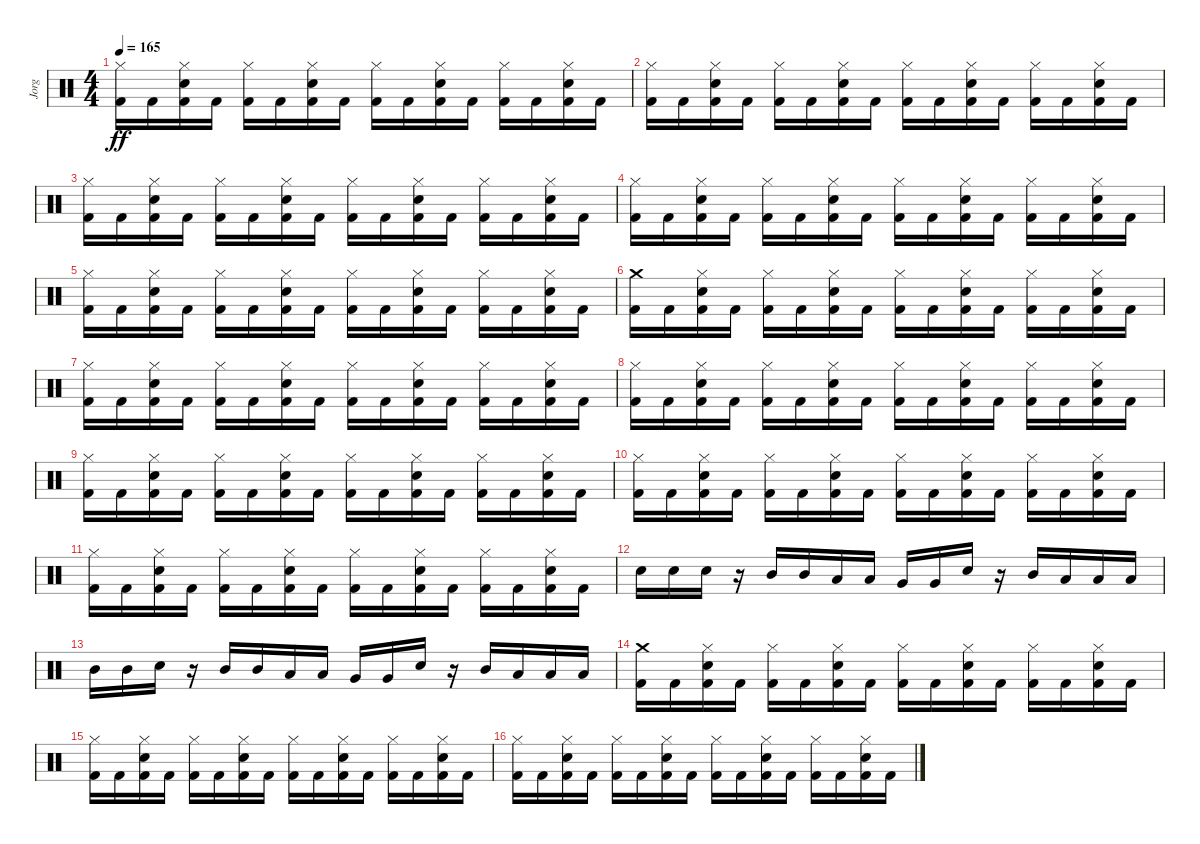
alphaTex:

\track ("Jorg" "Jorg") {instrument percussion}
\staff {score}
\articulation defaults
\ts (4 4)
\tempo 165
\clef neutral
\ks c
("Hi-Hat (closed)" "Kick (hit) 2").16{dy ff} "Kick (hit) 2".16 ("Hi-Hat (closed)" "Electric Snare (hit)" "Kick (hit) 2").16 "Kick (hit) 2".16 ("Hi-Hat (closed)" "Kick (hit) 2").16 "Kick (hit) 2".16 ("Hi-Hat (closed)" "Electric Snare (hit)" "Kick (hit) 2").16 "Kick (hit) 2".16 ("Hi-Hat (closed)" "Kick (hit) 2").16 "Kick (hit) 2".16 ("Hi-Hat (closed)" "Electric Snare (hit)" "Kick (hit) 2").16 "Kick (hit) 2".16 ("Hi-Hat (closed)" "Kick (hit) 2").16 "Kick (hit) 2".16 ("Hi-Hat (closed)" "Electric Snare (hit)" "Kick (hit) 2").16 "Kick (hit) 2".16 |
("Hi-Hat (closed)" "Kick (hit) 2").16 "Kick (hit) 2".16 ("Hi-Hat (closed)" "Electric Snare (hit)" "Kick (hit) 2").16 "Kick (hit) 2".16 ("Hi-Hat (closed)" "Kick (hit) 2").16 "Kick (hit) 2".16 ("Hi-Hat (closed)" "Electric Snare (hit)" "Kick (hit) 2").16 "Kick (hit) 2".16 ("Hi-Hat (closed)" "Kick (hit) 2").16 "Kick (hit) 2".16 ("Hi-Hat (closed)" "Electric Snare (hit)" "Kick (hit) 2").16 "Kick (hit) 2".16 ("Hi-Hat (closed)" "Kick (hit) 2").16 "Kick (hit) 2".16 ("Hi-Hat (closed)" "Electric Snare (hit)" "Kick (hit) 2").16 "Kick (hit) 2".16 |
("Hi-Hat (closed)" "Kick (hit) 2").16 "Kick (hit) 2".16 ("Hi-Hat (closed)" "Electric Snare (hit)" "Kick (hit) 2").16 "Kick (hit) 2".16 ("Hi-Hat (closed)" "Kick (hit) 2").16 "Kick (hit) 2".16 ("Hi-Hat (closed)" "Electric Snare (hit)" "Kick (hit) 2").16 "Kick (hit) 2".16 ("Hi-Hat (closed)" "Kick (hit) 2").16 "Kick (hit) 2".16 ("Hi-Hat (closed)" "Electric Snare (hit)" "Kick (hit) 2").16 "Kick (hit) 2".16 ("Hi-Hat (closed)" "Kick (hit) 2").16 "Kick (hit) 2".16 ("Hi-Hat (closed)" "Electric Snare (hit)" "Kick (hit) 2").16 "Kick (hit) 2".16 |
("Hi-Hat (closed)" "Kick (hit) 2").16 "Kick (hit) 2".16 ("Hi-Hat (closed)" "Electric Snare (hit)" "Kick (hit) 2").16 "Kick (hit) 2".16 ("Hi-Hat (closed)" "Kick (hit) 2").16 "Kick (hit) 2".16 ("Hi-Hat (closed)" "Electric Snare (hit)" "Kick (hit) 2").16 "Kick (hit) 2".16 ("Hi-Hat (closed)" "Kick (hit) 2").16 "Kick (hit) 2".16 ("Hi-Hat (closed)" "Electric Snare (hit)" "Kick (hit) 2").16 "Kick (hit) 2".16 ("Hi-Hat (closed)" "Kick (hit) 2").16 "Kick (hit) 2".16 ("Hi-Hat (closed)" "Electric Snare (hit)" "Kick (hit) 2").16 "Kick (hit) 2".16 |
("Hi-Hat (closed)" "Kick (hit) 2").16 "Kick (hit) 2".16 ("Hi-Hat (closed)" "Electric Snare (hit)" "Kick (hit) 2").16 "Kick (hit) 2".16 ("Hi-Hat (closed)" "Kick (hit) 2").16 "Kick (hit) 2".16 ("Hi-Hat (closed)" "Electric Snare (hit)" "Kick (hit) 2").16 "Kick (hit) 2".16 ("Hi-Hat (closed)" "Kick (hit) 2").16 "Kick (hit) 2".16 ("Hi-Hat (closed)" "Electric Snare (hit)" "Kick (hit) 2").16 "Kick (hit) 2".16 ("Hi-Hat (closed)" "Kick (hit) 2").16 "Kick (hit) 2".16 ("Hi-Hat (closed)" "Electric Snare (hit)" "Kick (hit) 2").16 "Kick (hit) 2".16 |
("Crash medium (hit)" "Kick (hit) 2").16 "Kick (hit) 2".16 ("Hi-Hat (closed)" "Electric Snare (hit)" "Kick (hit) 2").16 "Kick (hit) 2".16 ("Hi-Hat (closed)" "Kick (hit) 2").16 "Kick (hit) 2".16 ("Hi-Hat (closed)" "Electric Snare (hit)" "Kick (hit) 2").16 "Kick (hit) 2".16 ("Hi-Hat (closed)" "Kick (hit) 2").16 "Kick (hit) 2".16 ("Hi-Hat (closed)" "Electric Snare (hit)" "Kick (hit) 2").16 "Kick (hit) 2".16 ("Hi-Hat (closed)" "Kick (hit) 2").16 "Kick (hit) 2".16 ("Hi-Hat (closed)" "Electric Snare (hit)" "Kick (hit) 2").16 "Kick (hit) 2".16 |
("Hi-Hat (closed)" "Kick (hit) 2").16 "Kick (hit) 2".16 ("Hi-Hat (closed)" "Electric Snare (hit)" "Kick (hit) 2").16 "Kick (hit) 2".16 ("Hi-Hat (closed)" "Kick (hit) 2").16 "Kick (hit) 2".16 ("Hi-Hat (closed)" "Electric Snare (hit)" "Kick (hit) 2").16 "Kick (hit) 2".16 ("Hi-Hat (closed)" "Kick (hit) 2").16 "Kick (hit) 2".16 ("Hi-Hat (closed)" "Electric Snare (hit)" "Kick (hit) 2").16 "Kick (hit) 2".16 ("Hi-Hat (closed)" "Kick (hit) 2").16 "Kick (hit) 2".16 ("Hi-Hat (closed)" "Electric Snare (hit)" "Kick (hit) 2").16 "Kick (hit) 2".16 |
("Hi-Hat (closed)" "Kick (hit) 2").16 "Kick (hit) 2".16 ("Hi-Hat (closed)" "Electric Snare (hit)" "Kick (hit) 2").16 "Kick (hit) 2".16 ("Hi-Hat (closed)" "Kick (hit) 2").16 "Kick (hit) 2".16 ("Hi-Hat (closed)" "Electric Snare (hit)" "Kick (hit) 2").16 "Kick (hit) 2".16 ("Hi-Hat (closed)" "Kick (hit) 2").16 "Kick (hit) 2".16 ("Hi-Hat (closed)" "Electric Snare (hit)" "Kick (hit) 2").16 "Kick (hit) 2".16 ("Hi-Hat (closed)" "Kick (hit) 2").16 "Kick (hit) 2".16 ("Hi-Hat (closed)" "Electric Snare (hit)" "Kick (hit) 2").16 "Kick (hit) 2".16 |
("Hi-Hat (closed)" "Kick (hit) 2").16 "Kick (hit) 2".16 ("Hi-Hat (closed)" "Electric Snare (hit)" "Kick (hit) 2").16 "Kick (hit) 2".16 ("Hi-Hat (closed)" "Kick (hit) 2").16 "Kick (hit) 2".16 ("Hi-Hat (closed)" "Electric Snare (hit)" "Kick (hit) 2").16 "Kick (hit) 2".16 ("Hi-Hat (closed)" "Kick (hit) 2").16 "Kick (hit) 2".16 ("Hi-Hat (closed)" "Electric Snare (hit)" "Kick (hit) 2").16 "Kick (hit) 2".16 ("Hi-Hat (closed)" "Kick (hit) 2").16 "Kick (hit) 2".16 ("Hi-Hat (closed)" "Electric Snare (hit)" "Kick (hit) 2").16 "Kick (hit) 2".16 |
("Hi-Hat (closed)" "Kick (hit) 2").16 "Kick (hit) 2".16 ("Hi-Hat (closed)" "Electric Snare (hit)" "Kick (hit) 2").16 "Kick (hit) 2".16 ("Hi-Hat (closed)" "Kick (hit) 2").16 "Kick (hit) 2".16 ("Hi-Hat (closed)" "Electric Snare (hit)" "Kick (hit) 2").16 "Kick (hit) 2".16 ("Hi-Hat (closed)" "Kick (hit) 2").16 "Kick (hit) 2".16 ("Hi-Hat (closed)" "Electric Snare (hit)" "Kick (hit) 2").16 "Kick (hit) 2".16 ("Hi-Hat (closed)" "Kick (hit) 2").16 "Kick (hit) 2".16 ("Hi-Hat (closed)" "Electric Snare (hit)" "Kick (hit) 2").16 "Kick (hit) 2".16 |
("Hi-Hat (closed)" "Kick (hit) 2").16 "Kick (hit) 2".16 ("Hi-Hat (closed)" "Electric Snare (hit)" "Kick (hit) 2").16 "Kick (hit) 2".16 ("Hi-Hat (closed)" "Kick (hit) 2").16 "Kick (hit) 2".16 ("Hi-Hat (closed)" "Electric Snare (hit)" "Kick (hit) 2").16 "Kick (hit) 2".16 ("Hi-Hat (closed)" "Kick (hit) 2").16 "Kick (hit) 2".16 ("Hi-Hat (closed)" "Electric Snare (hit)" "Kick (hit) 2").16 "Kick (hit) 2".16 ("Hi-Hat (closed)" "Kick (hit) 2").16 "Kick (hit) 2".16 ("Hi-Hat (closed)" "Electric Snare (hit)" "Kick (hit) 2").16 "Kick (hit) 2".16 |
"Electric Snare (hit)".16 "Electric Snare (hit)".16 "Electric Snare (hit)".16 r.16 "Mid Tom (hit)".16 "Mid Tom (hit)".16 "Low Tom (hit)".16 "Low Tom (hit)".16 "Very Low Tom (hit)".16 "Very Low Tom (hit)".16 "Electric Snare (hit)".16 r.16 "Mid Tom (hit)".16 "Low Tom (hit)".16 "Low Tom (hit)".16 "Low Tom (hit)".16 |
"Mid Tom (hit)".16 "Mid Tom (hit)".16 "Electric Snare (hit)".16 r.16 "Mid Tom (hit)".16 "Mid Tom (hit)".16 "Low Tom (hit)".16 "Low Tom (hit)".16 "Very Low Tom (hit)".16 "Very Low Tom (hit)".16 "Electric Snare (hit)".16 r.16 "Mid Tom (hit)".16 "Low Tom (hit)".16 "Low Tom (hit)".16 "Low Tom (hit)".16 |
("Crash medium (hit)" "Kick (hit) 2").16 "Kick (hit) 2".16 ("Hi-Hat (closed)" "Electric Snare (hit)" "Kick (hit) 2").16 "Kick (hit) 2".16 ("Hi-Hat (closed)" "Kick (hit) 2").16 "Kick (hit) 2".16 ("Hi-Hat (closed)" "Electric Snare (hit)" "Kick (hit) 2").16 "Kick (hit) 2".16 ("Hi-Hat (closed)" "Kick (hit) 2").16 "Kick (hit) 2".16 ("Hi-Hat (closed)" "Electric Snare (hit)" "Kick (hit) 2").16 "Kick (hit) 2".16 ("Hi-Hat (closed)" "Kick (hit) 2").16 "Kick (hit) 2".16 ("Hi-Hat (closed)" "Electric Snare (hit)" "Kick (hit) 2").16 "Kick (hit) 2".16 |
("Hi-Hat (closed)" "Kick (hit) 2").16 "Kick (hit) 2".16 ("Hi-Hat (closed)" "Electric Snare (hit)" "Kick (hit) 2").16 "Kick (hit) 2".16 ("Hi-Hat (closed)" "Kick (hit) 2").16 "Kick (hit) 2".16 ("Hi-Hat (closed)" "Electric Snare (hit)" "Kick (hit) 2").16 "Kick (hit) 2".16 ("Hi-Hat (closed)" "Kick (hit) 2").16 "Kick (hit) 2".16 ("Hi-Hat (closed)" "Electric Snare (hit)" "Kick (hit) 2").16 "Kick (hit) 2".16 ("Hi-Hat (closed)" "Kick (hit) 2").16 "Kick (hit) 2".16 ("Hi-Hat (closed)" "Electric Snare (hit)" "Kick (hit) 2").16 "Kick (hit) 2".16 |
("Hi-Hat (closed)" "Kick (hit) 2").16 "Kick (hit) 2".16 ("Hi-Hat (closed)" "Electric Snare (hit)" "Kick (hit) 2").16 "Kick (hit) 2".16 ("Hi-Hat (closed)" "Kick (hit) 2").16 "Kick (hit) 2".16 ("Hi-Hat (closed)" "Electric Snare (hit)" "Kick (hit) 2").16 "Kick (hit) 2".16 ("Hi-Hat (closed)" "Kick (hit) 2").16 "Kick (hit) 2".16 ("Hi-Hat (closed)" "Electric Snare (hit)" "Kick (hit) 2").16 "Kick (hit) 2".16 ("Hi-Hat (closed)" "Kick (hit) 2").16 "Kick (hit) 2".16 ("Hi-Hat (closed)" "Electric Snare (hit)" "Kick (hit) 2").16 "Kick (hit) 2".16
